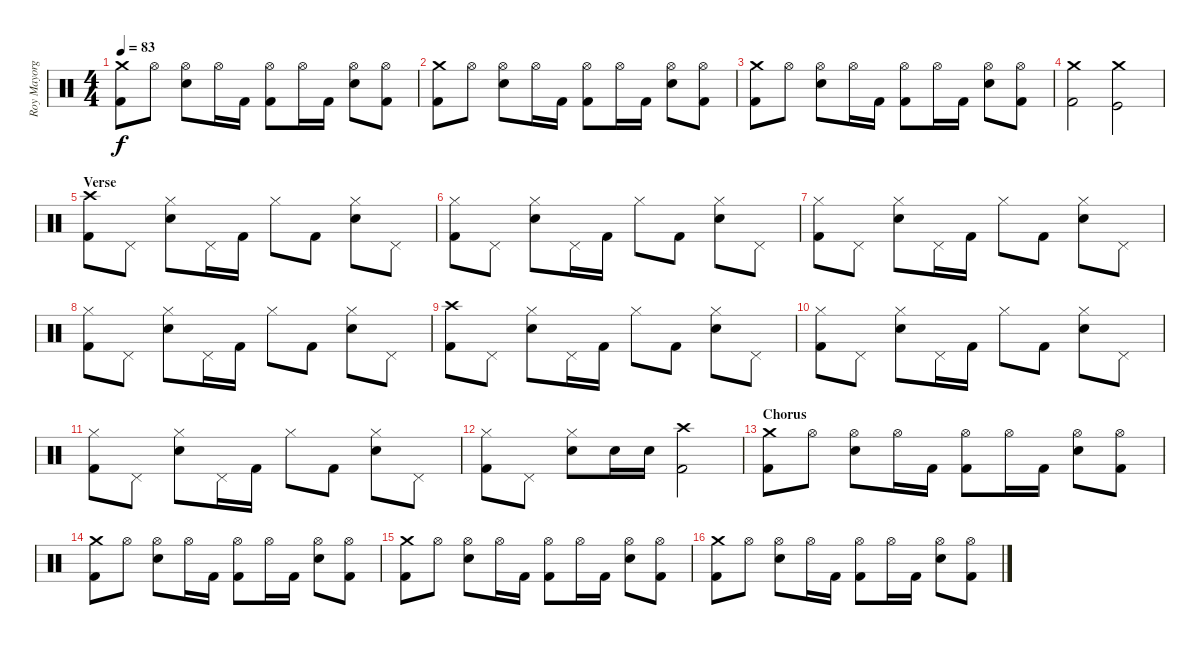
\track ("Roy Mayorga" "Roy Mayorg") {instrument percussion}
\staff {score}
\articulation defaults
\ts (4 4)
\tempo 83
\clef neutral
\ks c
("Crash medium (hit)" "Kick (hit) 2").8{dy f} "Hi-Hat (open)".8 ("Hi-Hat (open)" "Electric Snare (hit)").8 "Hi-Hat (open)".16 "Kick (hit) 2".16 ("Kick (hit) 2" "Hi-Hat (open)").8 "Hi-Hat (open)".16 "Kick (hit) 2".16 ("Electric Snare (hit)" "Hi-Hat (open)").8 ("Hi-Hat (open)" "Kick (hit) 2").8 |
("Crash medium (hit)" "Kick (hit) 2").8 "Hi-Hat (open)".8 ("Hi-Hat (open)" "Electric Snare (hit)").8 "Hi-Hat (open)".16 "Kick (hit) 2".16 ("Kick (hit) 2" "Hi-Hat (open)").8 "Hi-Hat (open)".16 "Kick (hit) 2".16 ("Electric Snare (hit)" "Hi-Hat (open)").8 ("Hi-Hat (open)" "Kick (hit) 2").8 |
("Crash medium (hit)" "Kick (hit) 2").8 "Hi-Hat (open)".8 ("Hi-Hat (open)" "Electric Snare (hit)").8 "Hi-Hat (open)".16 "Kick (hit) 2".16 ("Kick (hit) 2" "Hi-Hat (open)").8 "Hi-Hat (open)".16 "Kick (hit) 2".16 ("Electric Snare (hit)" "Hi-Hat (open)").8 ("Hi-Hat (open)" "Kick (hit) 2").8 |
("Crash medium (hit)" "Kick (hit) 2").2 ("Crash medium (hit)" "Kick (hit)").2 |
\section ("" "Verse ")
("Crash high (hit)" "Kick (hit) 2").8 "Pedal Hi-Hat (hit)".8 ("Hi-Hat (closed)" "Electric Snare (hit)").8 "Pedal Hi-Hat (hit)".16 "Kick (hit) 2".16 "Hi-Hat (closed)".8 "Kick (hit) 2".8 ("Electric Snare (hit)" "Hi-Hat (closed)").8 "Pedal Hi-Hat (hit)".8 |
("Hi-Hat (closed)" "Kick (hit) 2").8 "Pedal Hi-Hat (hit)".8 ("Hi-Hat (closed)" "Electric Snare (hit)").8 "Pedal Hi-Hat (hit)".16 "Kick (hit) 2".16 "Hi-Hat (closed)".8 "Kick (hit) 2".8 ("Electric Snare (hit)" "Hi-Hat (closed)").8 "Pedal Hi-Hat (hit)".8 |
("Hi-Hat (closed)" "Kick (hit) 2").8 "Pedal Hi-Hat (hit)".8 ("Hi-Hat (closed)" "Electric Snare (hit)").8 "Pedal Hi-Hat (hit)".16 "Kick (hit) 2".16 "Hi-Hat (closed)".8 "Kick (hit) 2".8 ("Electric Snare (hit)" "Hi-Hat (closed)").8 "Pedal Hi-Hat (hit)".8 |
("Hi-Hat (closed)" "Kick (hit) 2").8 "Pedal Hi-Hat (hit)".8 ("Hi-Hat (closed)" "Electric Snare (hit)").8 "Pedal Hi-Hat (hit)".16 "Kick (hit) 2".16 "Hi-Hat (closed)".8 "Kick (hit) 2".8 ("Electric Snare (hit)" "Hi-Hat (closed)").8 "Pedal Hi-Hat (hit)".8 |
("Crash high (hit)" "Kick (hit) 2").8 "Pedal Hi-Hat (hit)".8 ("Hi-Hat (closed)" "Electric Snare (hit)").8 "Pedal Hi-Hat (hit)".16 "Kick (hit) 2".16 "Hi-Hat (closed)".8 "Kick (hit) 2".8 ("Electric Snare (hit)" "Hi-Hat (closed)").8 "Pedal Hi-Hat (hit)".8 |
("Hi-Hat (closed)" "Kick (hit) 2").8 "Pedal Hi-Hat (hit)".8 ("Hi-Hat (closed)" "Electric Snare (hit)").8 "Pedal Hi-Hat (hit)".16 "Kick (hit) 2".16 "Hi-Hat (closed)".8 "Kick (hit) 2".8 ("Electric Snare (hit)" "Hi-Hat (closed)").8 "Pedal Hi-Hat (hit)".8 |
("Hi-Hat (closed)" "Kick (hit) 2").8 "Pedal Hi-Hat (hit)".8 ("Hi-Hat (closed)" "Electric Snare (hit)").8 "Pedal Hi-Hat (hit)".16 "Kick (hit) 2".16 "Hi-Hat (closed)".8 "Kick (hit) 2".8 ("Electric Snare (hit)" "Hi-Hat (closed)").8 "Pedal Hi-Hat (hit)".8 |
("Hi-Hat (closed)" "Kick (hit) 2").8 "Pedal Hi-Hat (hit)".8 ("Hi-Hat (closed)" "Electric Snare (hit)").8 "Electric Snare (hit)".16 "Electric Snare (hit)".16 ("Kick (hit) 2" "Crash high (hit)").2 |
\section ("" "Chorus")
("Crash medium (hit)" "Kick (hit) 2").8 "Hi-Hat (open)".8 ("Hi-Hat (open)" "Electric Snare (hit)").8 "Hi-Hat (open)".16 "Kick (hit) 2".16 ("Kick (hit) 2" "Hi-Hat (open)").8 "Hi-Hat (open)".16 "Kick (hit) 2".16 ("Electric Snare (hit)" "Hi-Hat (open)").8 ("Hi-Hat (open)" "Kick (hit) 2").8 |
("Crash medium (hit)" "Kick (hit) 2").8 "Hi-Hat (open)".8 ("Hi-Hat (open)" "Electric Snare (hit)").8 "Hi-Hat (open)".16 "Kick (hit) 2".16 ("Kick (hit) 2" "Hi-Hat (open)").8 "Hi-Hat (open)".16 "Kick (hit) 2".16 ("Electric Snare (hit)" "Hi-Hat (open)").8 ("Hi-Hat (open)" "Kick (hit) 2").8 |
("Crash medium (hit)" "Kick (hit) 2").8 "Hi-Hat (open)".8 ("Hi-Hat (open)" "Electric Snare (hit)").8 "Hi-Hat (open)".16 "Kick (hit) 2".16 ("Kick (hit) 2" "Hi-Hat (open)").8 "Hi-Hat (open)".16 "Kick (hit) 2".16 ("Electric Snare (hit)" "Hi-Hat (open)").8 ("Hi-Hat (open)" "Kick (hit) 2").8 |
("Crash medium (hit)" "Kick (hit) 2").8 "Hi-Hat (open)".8 ("Hi-Hat (open)" "Electric Snare (hit)").8 "Hi-Hat (open)".16 "Kick (hit) 2".16 ("Kick (hit) 2" "Hi-Hat (open)").8 "Hi-Hat (open)".16 "Kick (hit) 2".16 ("Electric Snare (hit)" "Hi-Hat (open)").8 ("Hi-Hat (open)" "Kick (hit) 2").8
